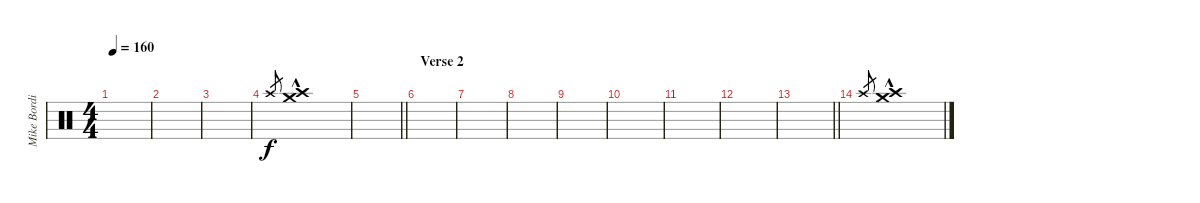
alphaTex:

\track ("Mike Bordin - Percussion Crash" "Mike Bordi") {instrument percussion}
\staff {score}
\articulation defaults
\ts (4 4)
\tempo 160
\clef neutral
\ks c
|
|
|
"Crash high (hit)".8{gr} ("Crash high (hit)"{hac} "Crash medium (hit)").1{volume 16} |
\barLineRight lightlight
|
\section ("" "Verse 2")
|
|
|
|
|
|
|
\barLineRight lightlight
|
\section ("" "")
"Crash high (hit)".8{gr} ("Crash high (hit)"{hac} "Crash medium (hit)").1{volume 16}
